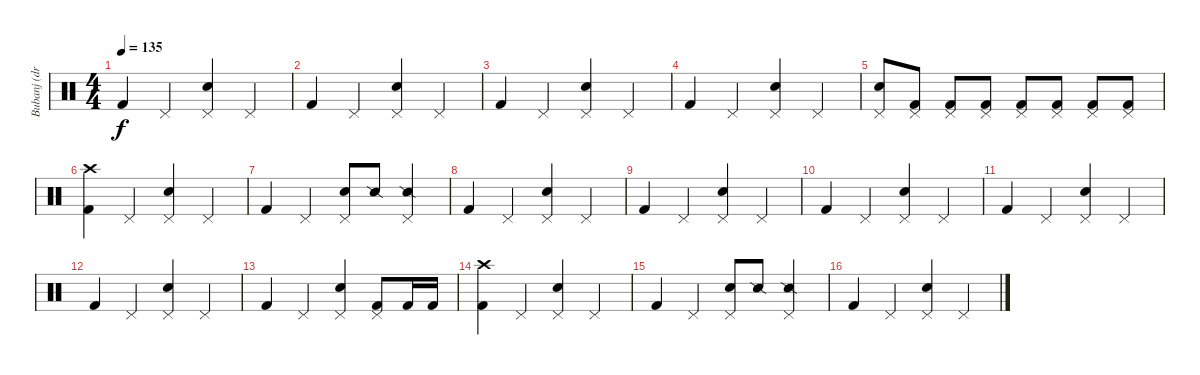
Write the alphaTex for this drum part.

\track ("Bubanj (drums)" "Bubanj (dr") {instrument percussion}
\staff {score}
\articulation defaults
\ts (4 4)
\tempo 135
\clef neutral
\ks c "Kick (hit) 2".4{dy f} "Pedal Hi-Hat (hit)".4
("Pedal Hi-Hat (hit)" "Snare (hit) 2").4 "Pedal Hi-Hat (hit)".4 |
"Kick (hit) 2".4 "Pedal Hi-Hat (hit)".4 ("Pedal Hi-Hat (hit)" "Snare (hit) 2").4 "Pedal Hi-Hat (hit)".4 |
"Kick (hit) 2".4 "Pedal Hi-Hat (hit)".4 ("Pedal Hi-Hat (hit)" "Snare (hit) 2").4 "Pedal Hi-Hat (hit)".4 |
"Kick (hit) 2".4 "Pedal Hi-Hat (hit)".4 ("Pedal Hi-Hat (hit)" "Snare (hit) 2").4 "Pedal Hi-Hat (hit)".4 |
("Snare (hit) 2" "Pedal Hi-Hat (hit)").8 ("Kick (hit) 2" "Pedal Hi-Hat (hit)").8 ("Kick (hit) 2" "Pedal Hi-Hat (hit)").8 ("Kick (hit) 2" "Pedal Hi-Hat (hit)").8 ("Kick (hit) 2" "Pedal Hi-Hat (hit)").8 ("Kick (hit) 2" "Pedal Hi-Hat (hit)").8 ("Kick (hit) 2" "Pedal Hi-Hat (hit)").8 ("Kick (hit) 2" "Pedal Hi-Hat (hit)").8 |
("Kick (hit) 2" "Crash high (hit)").4 "Pedal Hi-Hat (hit)".4 ("Pedal Hi-Hat (hit)" "Snare (hit) 2").4 "Pedal Hi-Hat (hit)".4 |
"Kick (hit) 2".4 "Pedal Hi-Hat (hit)".4 ("Pedal Hi-Hat (hit)" "Snare (hit) 2").8 "Snare (side stick) 2".8 ("Pedal Hi-Hat (hit)" "Snare (side stick) 2").4 |
"Kick (hit) 2".4 "Pedal Hi-Hat (hit)".4 ("Pedal Hi-Hat (hit)" "Snare (hit) 2").4 "Pedal Hi-Hat (hit)".4 |
"Kick (hit) 2".4 "Pedal Hi-Hat (hit)".4 ("Pedal Hi-Hat (hit)" "Snare (hit) 2").4 "Pedal Hi-Hat (hit)".4 |
"Kick (hit) 2".4 "Pedal Hi-Hat (hit)".4 ("Pedal Hi-Hat (hit)" "Snare (hit) 2").4 "Pedal Hi-Hat (hit)".4 |
"Kick (hit) 2".4 "Pedal Hi-Hat (hit)".4 ("Pedal Hi-Hat (hit)" "Snare (hit) 2").4 "Pedal Hi-Hat (hit)".4 |
"Kick (hit) 2".4 "Pedal Hi-Hat (hit)".4 ("Pedal Hi-Hat (hit)" "Snare (hit) 2").4 "Pedal Hi-Hat (hit)".4 |
"Kick (hit) 2".4 "Pedal Hi-Hat (hit)".4 ("Pedal Hi-Hat (hit)" "Snare (hit) 2").4 ("Pedal Hi-Hat (hit)" "Kick (hit) 2").8 "Kick (hit) 2".16 "Kick (hit) 2".16 |
("Kick (hit) 2" "Crash high (hit)").4 "Pedal Hi-Hat (hit)".4 ("Pedal Hi-Hat (hit)" "Snare (hit) 2").4 "Pedal Hi-Hat (hit)".4 |
"Kick (hit) 2".4 "Pedal Hi-Hat (hit)".4 ("Pedal Hi-Hat (hit)" "Snare (hit) 2").8 "Snare (side stick) 2".8 ("Pedal Hi-Hat (hit)" "Snare (side stick) 2").4 |
"Kick (hit) 2".4 "Pedal Hi-Hat (hit)".4 ("Pedal Hi-Hat (hit)" "Snare (hit) 2").4 "Pedal Hi-Hat (hit)".4
